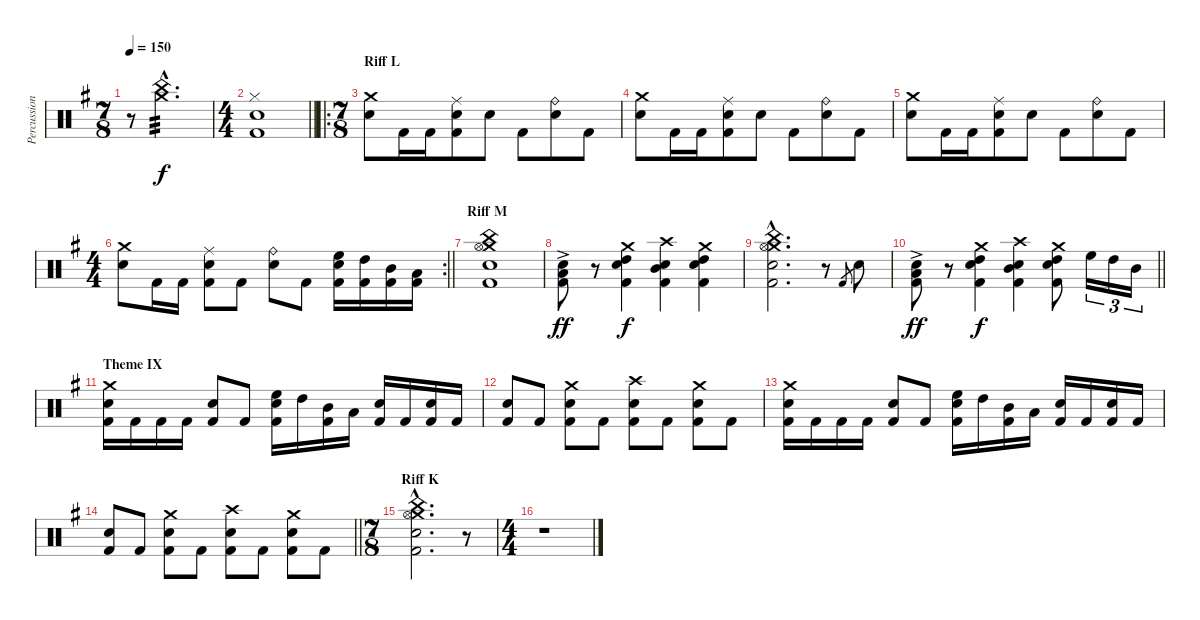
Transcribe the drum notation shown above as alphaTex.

\track ("Percussion" "Percussion") {instrument percussion}
\staff {score}
\articulation defaults
\ts (7 8)
\tempo 150
\clef neutral
\ks eminor
r.8{dy f volume 0} ("Crash medium (hit)"{hac} "China (hit)"{hac}).2{d tp 3 volume 15} |
\ts (4 4)
\barLineRight lightlight
("Hi-Hat (closed)" "Snare (hit) 2" "Kick (hit) 2").1 |
\ro
\ts (7 8)
\section ("" "Riff L")
("Crash medium (hit)" "Snare (hit) 2").8 "Kick (hit) 2".16 "Kick (hit) 2".16 ("Ride (middle)" "Snare (hit) 2" "Kick (hit) 2").8 "Snare (hit) 2".8 "Kick (hit) 2".8 ("Ride (bell)" "Snare (hit) 2").8 "Kick (hit) 2".8 |
("Crash medium (hit)" "Snare (hit) 2").8 "Kick (hit) 2".16 "Kick (hit) 2".16 ("Ride (middle)" "Snare (hit) 2" "Kick (hit) 2").8 "Snare (hit) 2".8 "Kick (hit) 2".8 ("Ride (bell)" "Snare (hit) 2").8 "Kick (hit) 2".8 |
("Crash medium (hit)" "Snare (hit) 2").8 "Kick (hit) 2".16 "Kick (hit) 2".16 ("Ride (middle)" "Snare (hit) 2" "Kick (hit) 2").8 "Snare (hit) 2".8 "Kick (hit) 2".8 ("Ride (bell)" "Snare (hit) 2").8 "Kick (hit) 2".8 |
\rc 2
\ts (4 4)
\barLineRight lightlight
("Crash medium (hit)" "Snare (hit) 2").8 "Kick (hit) 2".16 "Kick (hit) 2".16 ("Ride (middle)" "Snare (hit) 2" "Kick (hit) 2").8 "Kick (hit) 2".8 ("Ride (bell)" "Snare (hit) 2").8 "Kick (hit) 2".8 ("High Floor Tom (hit)" "Snare (hit) 2" "Kick (hit) 2").16 ("High Tom (hit)" "Kick (hit) 2").16 ("Mid Tom (hit)" "Kick (hit) 2").16 ("Low Tom (hit)" "Kick (hit) 2").16 |
\section ("" "Riff M")
("Crash medium (hit)" "China (hit)" "Hi-Hat (open)" "Snare (hit) 2" "Kick (hit) 2").1 |
("Low Floor Tom (hit)"{ac} "Snare (hit) 2"{ac} "Kick (hit) 2"{ac}).8{dy ff} r.8 ("Crash medium (hit)" "High Tom (hit)" "Snare (hit) 2" "Kick (hit) 2").4{dy f} ("Crash high (hit)" "Mid Tom (hit)" "Snare (hit) 2" "Kick (hit) 2").4 ("Crash medium (hit)" "High Tom (hit)" "Snare (hit) 2" "Kick (hit) 2").4 |
("Crash medium (hit)"{hac} "China (hit)"{hac} "Hi-Hat (open)"{hac} "Snare (hit) 2"{hac} "Kick (hit) 2"{hac}).2{d} r.8 "Kick (hit) 2".8{gr} "Snare (hit) 2".8 |
\barLineRight lightlight
("Low Floor Tom (hit)"{ac} "Snare (hit) 2"{ac} "Kick (hit) 2"{ac}).8{dy ff} r.8 ("Crash medium (hit)" "High Tom (hit)" "Snare (hit) 2" "Kick (hit) 2").4{dy f} ("Crash high (hit)" "Mid Tom (hit)" "Snare (hit) 2" "Kick (hit) 2").4 ("Crash medium (hit)" "High Tom (hit)" "Snare (hit) 2" "Kick (hit) 2").8 "High Floor Tom (hit)".16{tu (3 2)} "High Tom (hit)".16{tu (3 2)} "Mid Tom (hit)".16{tu (3 2)} |
\section ("" "Theme IX")
("Crash medium (hit)" "Snare (hit) 2" "Kick (hit) 2").16 "Kick (hit) 2".16 "Kick (hit) 2".16 "Kick (hit) 2".16 ("Snare (hit) 2" "Kick (hit) 2").8 "Kick (hit) 2".8 ("High Floor Tom (hit)" "Snare (hit) 2" "Kick (hit) 2").16 "High Tom (hit)".16 ("Mid Tom (hit)" "Kick (hit) 2").16 "Low Tom (hit)".16 ("Snare (hit) 2" "Kick (hit) 2").16 "Kick (hit) 2".16 ("Snare (hit) 2" "Kick (hit) 2").16 "Kick (hit) 2".16 |
("Snare (hit) 2" "Kick (hit) 2").8 "Kick (hit) 2".8 ("Crash medium (hit)" "Snare (hit) 2" "Kick (hit) 2").8 "Kick (hit) 2".8 ("Crash high (hit)" "Snare (hit) 2" "Kick (hit) 2").8 "Kick (hit) 2".8 ("Crash medium (hit)" "Snare (hit) 2" "Kick (hit) 2").8 "Kick (hit) 2".8 |
("Crash medium (hit)" "Snare (hit) 2" "Kick (hit) 2").16 "Kick (hit) 2".16 "Kick (hit) 2".16 "Kick (hit) 2".16 ("Snare (hit) 2" "Kick (hit) 2").8 "Kick (hit) 2".8 ("High Floor Tom (hit)" "Snare (hit) 2" "Kick (hit) 2").16 "High Tom (hit)".16 ("Mid Tom (hit)" "Kick (hit) 2").16 "Low Tom (hit)".16 ("Snare (hit) 2" "Kick (hit) 2").16 "Kick (hit) 2".16 ("Snare (hit) 2" "Kick (hit) 2").16 "Kick (hit) 2".16 |
\barLineRight lightlight
("Snare (hit) 2" "Kick (hit) 2").8 "Kick (hit) 2".8 ("Crash medium (hit)" "Snare (hit) 2" "Kick (hit) 2").8 "Kick (hit) 2".8 ("Crash high (hit)" "Snare (hit) 2" "Kick (hit) 2").8 "Kick (hit) 2".8 ("Crash medium (hit)" "Snare (hit) 2" "Kick (hit) 2").8 "Kick (hit) 2".8 |
\ts (7 8)
\section ("" "Riff K")
("Crash medium (hit)"{hac} "China (hit)"{hac} "Hi-Hat (open)"{hac} "Snare (hit) 2"{hac} "Kick (hit) 2"{hac}).2{d} r.8 |
\ts (4 4)
r.1
